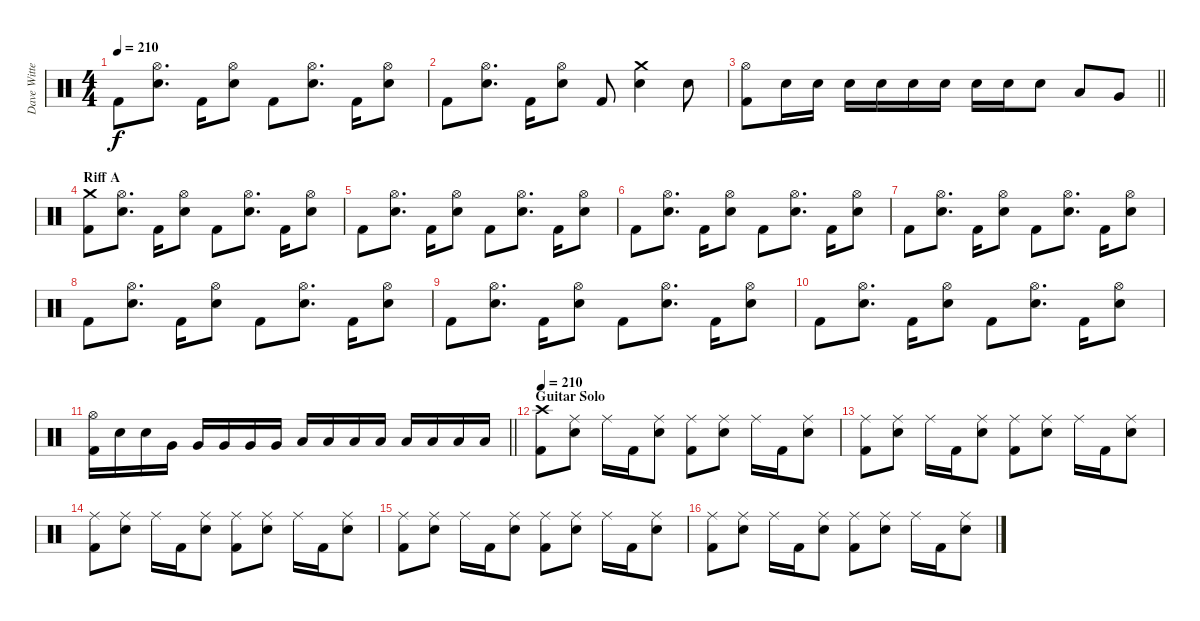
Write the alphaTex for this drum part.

\track ("Dave Witte" "Dave Witte") {instrument percussion}
\staff {score}
\articulation defaults
\ts (4 4)
\tempo 210
\clef neutral
\ks c "Kick (hit) 2".8{dy f}
("Hi-Hat (open)" "Electric Snare (hit)").8{d} "Kick (hit) 2".16 ("Hi-Hat (open)" "Electric Snare (hit)").8 "Kick (hit) 2".8 ("Hi-Hat (open)" "Electric Snare (hit)").8{d} "Kick (hit) 2".16 ("Hi-Hat (open)" "Electric Snare (hit)").8 |
"Kick (hit) 2".8 ("Hi-Hat (open)" "Electric Snare (hit)").8{d} "Kick (hit) 2".16 ("Hi-Hat (open)" "Electric Snare (hit)").8 "Kick (hit) 2".8 ("Crash medium (hit)" "Electric Snare (hit)").4 "Electric Snare (hit)".8 |
\barLineRight lightlight
("Hi-Hat (open)" "Kick (hit) 2").8 "Electric Snare (hit)".16 "Electric Snare (hit)".16 "Electric Snare (hit)".16 "Electric Snare (hit)".16 "Electric Snare (hit)".16 "Electric Snare (hit)".16 "Electric Snare (hit)".16 "Electric Snare (hit)".16 "Electric Snare (hit)".8 "Low Tom (hit)".8 "Very Low Tom (hit)".8 |
\section ("" "Riff A")
("Crash medium (hit)" "Kick (hit) 2").8 ("Hi-Hat (open)" "Electric Snare (hit)").8{d} "Kick (hit) 2".16 ("Hi-Hat (open)" "Electric Snare (hit)").8 "Kick (hit) 2".8 ("Hi-Hat (open)" "Electric Snare (hit)").8{d} "Kick (hit) 2".16 ("Hi-Hat (open)" "Electric Snare (hit)").8 |
"Kick (hit) 2".8 ("Hi-Hat (open)" "Electric Snare (hit)").8{d} "Kick (hit) 2".16 ("Hi-Hat (open)" "Electric Snare (hit)").8 "Kick (hit) 2".8 ("Hi-Hat (open)" "Electric Snare (hit)").8{d} "Kick (hit) 2".16 ("Hi-Hat (open)" "Electric Snare (hit)").8 |
"Kick (hit) 2".8 ("Hi-Hat (open)" "Electric Snare (hit)").8{d} "Kick (hit) 2".16 ("Hi-Hat (open)" "Electric Snare (hit)").8 "Kick (hit) 2".8 ("Hi-Hat (open)" "Electric Snare (hit)").8{d} "Kick (hit) 2".16 ("Hi-Hat (open)" "Electric Snare (hit)").8 |
"Kick (hit) 2".8 ("Hi-Hat (open)" "Electric Snare (hit)").8{d} "Kick (hit) 2".16 ("Hi-Hat (open)" "Electric Snare (hit)").8 "Kick (hit) 2".8 ("Hi-Hat (open)" "Electric Snare (hit)").8{d} "Kick (hit) 2".16 ("Hi-Hat (open)" "Electric Snare (hit)").8 |
"Kick (hit) 2".8 ("Hi-Hat (open)" "Electric Snare (hit)").8{d} "Kick (hit) 2".16 ("Hi-Hat (open)" "Electric Snare (hit)").8 "Kick (hit) 2".8 ("Hi-Hat (open)" "Electric Snare (hit)").8{d} "Kick (hit) 2".16 ("Hi-Hat (open)" "Electric Snare (hit)").8 |
"Kick (hit) 2".8 ("Hi-Hat (open)" "Electric Snare (hit)").8{d} "Kick (hit) 2".16 ("Hi-Hat (open)" "Electric Snare (hit)").8 "Kick (hit) 2".8 ("Hi-Hat (open)" "Electric Snare (hit)").8{d} "Kick (hit) 2".16 ("Hi-Hat (open)" "Electric Snare (hit)").8 |
"Kick (hit) 2".8 ("Hi-Hat (open)" "Electric Snare (hit)").8{d} "Kick (hit) 2".16 ("Hi-Hat (open)" "Electric Snare (hit)").8 "Kick (hit) 2".8 ("Hi-Hat (open)" "Electric Snare (hit)").8{d} "Kick (hit) 2".16 ("Hi-Hat (open)" "Electric Snare (hit)").8 |
\barLineRight lightlight
("Hi-Hat (open)" "Kick (hit) 2").16 "Electric Snare (hit)".16 "Electric Snare (hit)".16 "Very Low Tom (hit)".16 "Very Low Tom (hit)".16 "Very Low Tom (hit)".16 "Very Low Tom (hit)".16 "Very Low Tom (hit)".16 "Low Floor Tom (hit)".16 "Low Floor Tom (hit)".16 "Low Floor Tom (hit)".16 "Low Floor Tom (hit)".16 "Low Floor Tom (hit)".16 "Low Floor Tom (hit)".16 "Low Floor Tom (hit)".16 "Low Floor Tom (hit)".16 |
\section ("" "Guitar Solo")
\tempo 210
("Crash high (hit)" "Kick (hit) 2").8 ("Ride (middle)" "Electric Snare (hit)").8 "Ride (middle)".16 "Kick (hit) 2".16 ("Ride (middle)" "Electric Snare (hit)").8 ("Ride (middle)" "Kick (hit) 2").8 ("Ride (middle)" "Electric Snare (hit)").8 "Ride (middle)".16 "Kick (hit) 2".16 ("Ride (middle)" "Electric Snare (hit)").8 |
("Ride (middle)" "Kick (hit) 2").8 ("Ride (middle)" "Electric Snare (hit)").8 "Ride (middle)".16 "Kick (hit) 2".16 ("Ride (middle)" "Electric Snare (hit)").8 ("Ride (middle)" "Kick (hit) 2").8 ("Ride (middle)" "Electric Snare (hit)").8 "Ride (middle)".16 "Kick (hit) 2".16 ("Ride (middle)" "Electric Snare (hit)").8 |
("Ride (middle)" "Kick (hit) 2").8 ("Ride (middle)" "Electric Snare (hit)").8 "Ride (middle)".16 "Kick (hit) 2".16 ("Ride (middle)" "Electric Snare (hit)").8 ("Ride (middle)" "Kick (hit) 2").8 ("Ride (middle)" "Electric Snare (hit)").8 "Ride (middle)".16 "Kick (hit) 2".16 ("Ride (middle)" "Electric Snare (hit)").8 |
("Ride (middle)" "Kick (hit) 2").8 ("Ride (middle)" "Electric Snare (hit)").8 "Ride (middle)".16 "Kick (hit) 2".16 ("Ride (middle)" "Electric Snare (hit)").8 ("Ride (middle)" "Kick (hit) 2").8 ("Ride (middle)" "Electric Snare (hit)").8 "Ride (middle)".16 "Kick (hit) 2".16 ("Ride (middle)" "Electric Snare (hit)").8 |
("Ride (middle)" "Kick (hit) 2").8 ("Ride (middle)" "Electric Snare (hit)").8 "Ride (middle)".16 "Kick (hit) 2".16 ("Ride (middle)" "Electric Snare (hit)").8 ("Ride (middle)" "Kick (hit) 2").8 ("Ride (middle)" "Electric Snare (hit)").8 "Ride (middle)".16 "Kick (hit) 2".16 ("Ride (middle)" "Electric Snare (hit)").8
